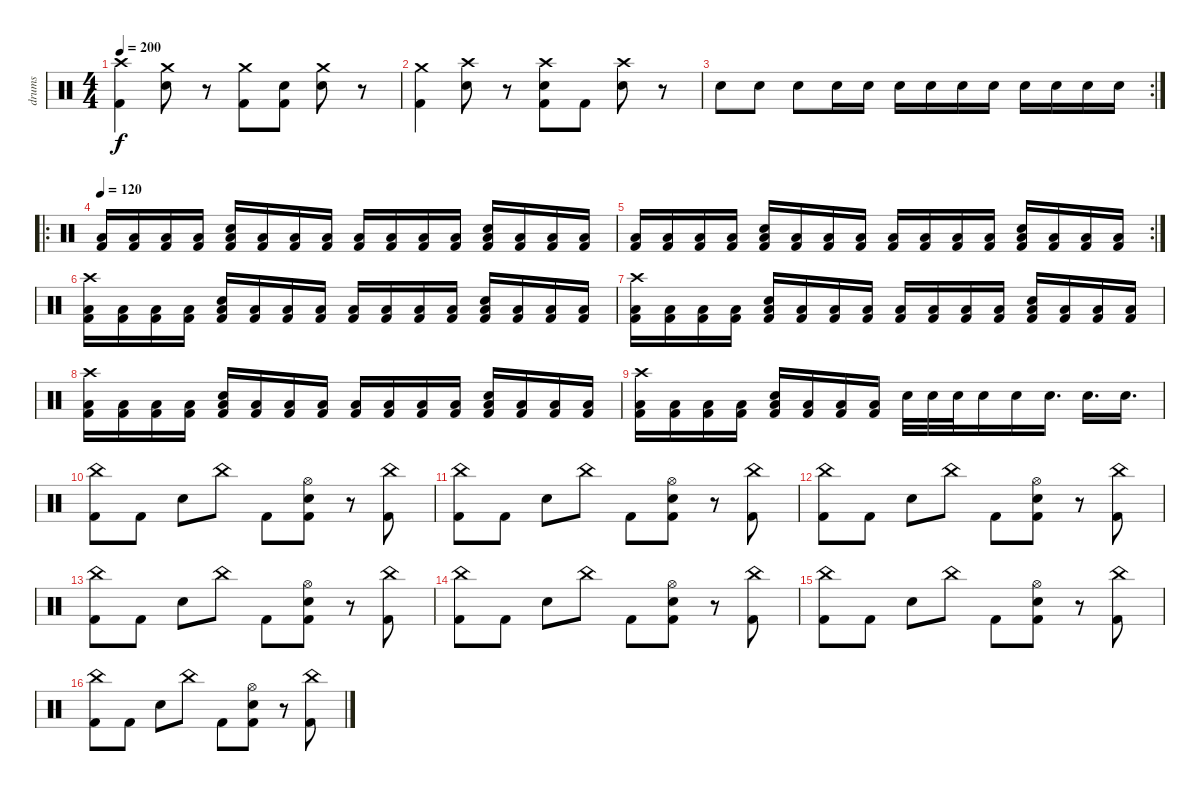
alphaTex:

\track ("drums" "drums") {instrument percussion}
\staff {score}
\articulation defaults
\ts (4 4)
\tempo 200
\clef neutral
\ks c
("Crash high (hit)" "Kick (hit) 2").4{dy f} ("Crash medium (hit)" "Electric Snare (hit)").8 r.8 ("Crash medium (hit)" "Kick (hit) 2").8 ("Electric Snare (hit)" "Kick (hit) 2").8 ("Crash medium (hit)" "Electric Snare (hit)").8 r.8 |
("Crash medium (hit)" "Kick (hit) 2").4 ("Crash high (hit)" "Electric Snare (hit)").8 r.8 ("Crash high (hit)" "Electric Snare (hit)" "Kick (hit) 2").8 "Kick (hit) 2".8 ("Crash high (hit)" "Electric Snare (hit)").8 r.8 |
\rc 2 "Electric Snare (hit)".8 "Electric Snare (hit)".8 "Electric Snare (hit)".8 "Electric Snare (hit)".16 "Electric Snare (hit)".16 "Electric Snare (hit)".16 "Electric Snare (hit)".16 "Electric Snare (hit)".16 "Electric Snare (hit)".16 "Electric Snare (hit)".16 "Electric Snare (hit)".16 "Electric Snare (hit)".16 "Electric Snare (hit)".16
|
\ro
\tempo 120
("Low Floor Tom (hit)" "Kick (hit) 2").16 ("Low Floor Tom (hit)" "Kick (hit) 2").16 ("Low Floor Tom (hit)" "Kick (hit) 2").16 ("Low Floor Tom (hit)" "Kick (hit) 2").16 ("Electric Snare (hit)" "Low Floor Tom (hit)" "Kick (hit) 2").16 ("Low Floor Tom (hit)" "Kick (hit) 2").16 ("Low Floor Tom (hit)" "Kick (hit) 2").16 ("Low Floor Tom (hit)" "Kick (hit) 2").16 ("Low Floor Tom (hit)" "Kick (hit) 2").16 ("Low Floor Tom (hit)" "Kick (hit) 2").16 ("Low Floor Tom (hit)" "Kick (hit) 2").16 ("Low Floor Tom (hit)" "Kick (hit) 2").16 ("Electric Snare (hit)" "Low Floor Tom (hit)" "Kick (hit) 2").16 ("Low Floor Tom (hit)" "Kick (hit) 2").16 ("Low Floor Tom (hit)" "Kick (hit) 2").16 ("Low Floor Tom (hit)" "Kick (hit) 2").16 |
\rc 2
("Low Floor Tom (hit)" "Kick (hit) 2").16 ("Low Floor Tom (hit)" "Kick (hit) 2").16 ("Low Floor Tom (hit)" "Kick (hit) 2").16 ("Low Floor Tom (hit)" "Kick (hit) 2").16 ("Electric Snare (hit)" "Low Floor Tom (hit)" "Kick (hit) 2").16 ("Low Floor Tom (hit)" "Kick (hit) 2").16 ("Low Floor Tom (hit)" "Kick (hit) 2").16 ("Low Floor Tom (hit)" "Kick (hit) 2").16 ("Low Floor Tom (hit)" "Kick (hit) 2").16 ("Low Floor Tom (hit)" "Kick (hit) 2").16 ("Low Floor Tom (hit)" "Kick (hit) 2").16 ("Low Floor Tom (hit)" "Kick (hit) 2").16 ("Electric Snare (hit)" "Low Floor Tom (hit)" "Kick (hit) 2").16 ("Low Floor Tom (hit)" "Kick (hit) 2").16 ("Low Floor Tom (hit)" "Kick (hit) 2").16 ("Low Floor Tom (hit)" "Kick (hit) 2").16 |
("Crash high (hit)" "Low Floor Tom (hit)" "Kick (hit) 2").16 ("Low Floor Tom (hit)" "Kick (hit) 2").16 ("Low Floor Tom (hit)" "Kick (hit) 2").16 ("Low Floor Tom (hit)" "Kick (hit) 2").16 ("Electric Snare (hit)" "Low Floor Tom (hit)" "Kick (hit) 2").16 ("Low Floor Tom (hit)" "Kick (hit) 2").16 ("Low Floor Tom (hit)" "Kick (hit) 2").16 ("Low Floor Tom (hit)" "Kick (hit) 2").16 ("Low Floor Tom (hit)" "Kick (hit) 2").16 ("Low Floor Tom (hit)" "Kick (hit) 2").16 ("Low Floor Tom (hit)" "Kick (hit) 2").16 ("Low Floor Tom (hit)" "Kick (hit) 2").16 ("Electric Snare (hit)" "Low Floor Tom (hit)" "Kick (hit) 2").16 ("Low Floor Tom (hit)" "Kick (hit) 2").16 ("Low Floor Tom (hit)" "Kick (hit) 2").16 ("Low Floor Tom (hit)" "Kick (hit) 2").16 |
("Crash high (hit)" "Low Floor Tom (hit)" "Kick (hit) 2").16 ("Low Floor Tom (hit)" "Kick (hit) 2").16 ("Low Floor Tom (hit)" "Kick (hit) 2").16 ("Low Floor Tom (hit)" "Kick (hit) 2").16 ("Electric Snare (hit)" "Low Floor Tom (hit)" "Kick (hit) 2").16 ("Low Floor Tom (hit)" "Kick (hit) 2").16 ("Low Floor Tom (hit)" "Kick (hit) 2").16 ("Low Floor Tom (hit)" "Kick (hit) 2").16 ("Low Floor Tom (hit)" "Kick (hit) 2").16 ("Low Floor Tom (hit)" "Kick (hit) 2").16 ("Low Floor Tom (hit)" "Kick (hit) 2").16 ("Low Floor Tom (hit)" "Kick (hit) 2").16 ("Electric Snare (hit)" "Low Floor Tom (hit)" "Kick (hit) 2").16 ("Low Floor Tom (hit)" "Kick (hit) 2").16 ("Low Floor Tom (hit)" "Kick (hit) 2").16 ("Low Floor Tom (hit)" "Kick (hit) 2").16 |
("Crash high (hit)" "Low Floor Tom (hit)" "Kick (hit) 2").16 ("Low Floor Tom (hit)" "Kick (hit) 2").16 ("Low Floor Tom (hit)" "Kick (hit) 2").16 ("Low Floor Tom (hit)" "Kick (hit) 2").16 ("Electric Snare (hit)" "Low Floor Tom (hit)" "Kick (hit) 2").16 ("Low Floor Tom (hit)" "Kick (hit) 2").16 ("Low Floor Tom (hit)" "Kick (hit) 2").16 ("Low Floor Tom (hit)" "Kick (hit) 2").16 ("Low Floor Tom (hit)" "Kick (hit) 2").16 ("Low Floor Tom (hit)" "Kick (hit) 2").16 ("Low Floor Tom (hit)" "Kick (hit) 2").16 ("Low Floor Tom (hit)" "Kick (hit) 2").16 ("Electric Snare (hit)" "Low Floor Tom (hit)" "Kick (hit) 2").16 ("Low Floor Tom (hit)" "Kick (hit) 2").16 ("Low Floor Tom (hit)" "Kick (hit) 2").16 ("Low Floor Tom (hit)" "Kick (hit) 2").16 |
("Crash high (hit)" "Low Floor Tom (hit)" "Kick (hit) 2").16 ("Low Floor Tom (hit)" "Kick (hit) 2").16 ("Low Floor Tom (hit)" "Kick (hit) 2").16 ("Low Floor Tom (hit)" "Kick (hit) 2").16 ("Electric Snare (hit)" "Low Floor Tom (hit)" "Kick (hit) 2").16 ("Low Floor Tom (hit)" "Kick (hit) 2").16 ("Low Floor Tom (hit)" "Kick (hit) 2").16 ("Low Floor Tom (hit)" "Kick (hit) 2").16 "Electric Snare (hit)".32 "Electric Snare (hit)".32 "Electric Snare (hit)".32 "Electric Snare (hit)".16 "Electric Snare (hit)".16 "Electric Snare (hit)".16{d} "Electric Snare (hit)".16{d} "Electric Snare (hit)".16{d} |
("China (hit)" "Kick (hit) 2").8 "Kick (hit) 2".8 "Electric Snare (hit)".8 "China (hit)".8 "Kick (hit) 2".8 ("Hi-Hat (open)" "Electric Snare (hit)" "Kick (hit) 2").8 r.8 ("China (hit)" "Kick (hit) 2").8 |
("China (hit)" "Kick (hit) 2").8 "Kick (hit) 2".8 "Electric Snare (hit)".8 "China (hit)".8 "Kick (hit) 2".8 ("Hi-Hat (open)" "Electric Snare (hit)" "Kick (hit) 2").8 r.8 ("China (hit)" "Kick (hit) 2").8 |
("China (hit)" "Kick (hit) 2").8 "Kick (hit) 2".8 "Electric Snare (hit)".8 "China (hit)".8 "Kick (hit) 2".8 ("Hi-Hat (open)" "Electric Snare (hit)" "Kick (hit) 2").8 r.8 ("China (hit)" "Kick (hit) 2").8 |
("China (hit)" "Kick (hit) 2").8 "Kick (hit) 2".8 "Electric Snare (hit)".8 "China (hit)".8 "Kick (hit) 2".8 ("Hi-Hat (open)" "Electric Snare (hit)" "Kick (hit) 2").8 r.8 ("China (hit)" "Kick (hit) 2").8 |
("China (hit)" "Kick (hit) 2").8 "Kick (hit) 2".8 "Electric Snare (hit)".8 "China (hit)".8 "Kick (hit) 2".8 ("Hi-Hat (open)" "Electric Snare (hit)" "Kick (hit) 2").8 r.8 ("China (hit)" "Kick (hit) 2").8 |
("China (hit)" "Kick (hit) 2").8 "Kick (hit) 2".8 "Electric Snare (hit)".8 "China (hit)".8 "Kick (hit) 2".8 ("Hi-Hat (open)" "Electric Snare (hit)" "Kick (hit) 2").8 r.8 ("China (hit)" "Kick (hit) 2").8 |
("China (hit)" "Kick (hit) 2").8 "Kick (hit) 2".8 "Electric Snare (hit)".8 "China (hit)".8 "Kick (hit) 2".8 ("Hi-Hat (open)" "Electric Snare (hit)" "Kick (hit) 2").8 r.8 ("China (hit)" "Kick (hit) 2").8
